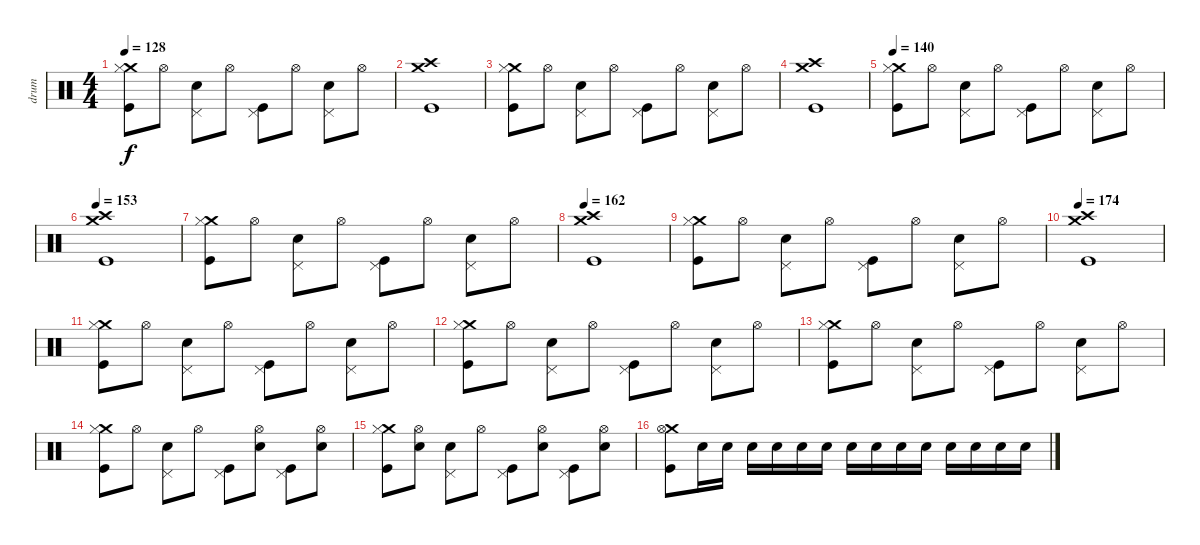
\track ("drum" "drum") {instrument percussion}
\staff {score}
\articulation defaults
\ts (4 4)
\tempo 128
\clef neutral
\ks c
("Crash medium (hit)" "Hi-Hat (closed)" "Kick (hit)").8{dy f} "Hi-Hat (open)".8 ("Pedal Hi-Hat (hit)" "Snare (hit) 2").8 "Hi-Hat (open)".8 ("Pedal Hi-Hat (hit)" "Kick (hit)").8 "Hi-Hat (open)".8 ("Pedal Hi-Hat (hit)" "Snare (hit) 2").8 "Hi-Hat (open)".8 |
("Crash medium (hit)" "Crash high (hit)" "Kick (hit)").1 |
("Crash medium (hit)" "Hi-Hat (closed)" "Kick (hit)").8 "Hi-Hat (open)".8 ("Pedal Hi-Hat (hit)" "Snare (hit) 2").8 "Hi-Hat (open)".8 ("Pedal Hi-Hat (hit)" "Kick (hit)").8 "Hi-Hat (open)".8 ("Pedal Hi-Hat (hit)" "Snare (hit) 2").8 "Hi-Hat (open)".8 |
("Crash medium (hit)" "Crash high (hit)" "Kick (hit)").1 |
\tempo 140
("Crash medium (hit)" "Hi-Hat (closed)" "Kick (hit)").8 "Hi-Hat (open)".8 ("Pedal Hi-Hat (hit)" "Snare (hit) 2").8 "Hi-Hat (open)".8 ("Pedal Hi-Hat (hit)" "Kick (hit)").8 "Hi-Hat (open)".8 ("Pedal Hi-Hat (hit)" "Snare (hit) 2").8 "Hi-Hat (open)".8 |
\tempo 153
("Crash medium (hit)" "Crash high (hit)" "Kick (hit)").1 |
("Crash medium (hit)" "Hi-Hat (closed)" "Kick (hit)").8 "Hi-Hat (open)".8 ("Pedal Hi-Hat (hit)" "Snare (hit) 2").8 "Hi-Hat (open)".8 ("Pedal Hi-Hat (hit)" "Kick (hit)").8 "Hi-Hat (open)".8 ("Pedal Hi-Hat (hit)" "Snare (hit) 2").8 "Hi-Hat (open)".8 |
\tempo 162
("Crash medium (hit)" "Crash high (hit)" "Kick (hit)").1 |
("Crash medium (hit)" "Hi-Hat (closed)" "Kick (hit)").8 "Hi-Hat (open)".8 ("Pedal Hi-Hat (hit)" "Snare (hit) 2").8 "Hi-Hat (open)".8 ("Pedal Hi-Hat (hit)" "Kick (hit)").8 "Hi-Hat (open)".8 ("Pedal Hi-Hat (hit)" "Snare (hit) 2").8 "Hi-Hat (open)".8 |
\tempo 174
("Crash medium (hit)" "Crash high (hit)" "Kick (hit)").1 |
("Crash medium (hit)" "Hi-Hat (closed)" "Kick (hit)").8 "Hi-Hat (open)".8 ("Pedal Hi-Hat (hit)" "Snare (hit) 2").8 "Hi-Hat (open)".8 ("Pedal Hi-Hat (hit)" "Kick (hit)").8 "Hi-Hat (open)".8 ("Pedal Hi-Hat (hit)" "Snare (hit) 2").8 "Hi-Hat (open)".8 |
("Crash medium (hit)" "Hi-Hat (closed)" "Kick (hit)").8 "Hi-Hat (open)".8 ("Pedal Hi-Hat (hit)" "Snare (hit) 2").8 "Hi-Hat (open)".8 ("Pedal Hi-Hat (hit)" "Kick (hit)").8 "Hi-Hat (open)".8 ("Pedal Hi-Hat (hit)" "Snare (hit) 2").8 "Hi-Hat (open)".8 |
("Crash medium (hit)" "Hi-Hat (closed)" "Kick (hit)").8 "Hi-Hat (open)".8 ("Pedal Hi-Hat (hit)" "Snare (hit) 2").8 "Hi-Hat (open)".8 ("Pedal Hi-Hat (hit)" "Kick (hit)").8 "Hi-Hat (open)".8 ("Pedal Hi-Hat (hit)" "Snare (hit) 2").8 "Hi-Hat (open)".8 |
("Crash medium (hit)" "Hi-Hat (closed)" "Kick (hit)").8 "Hi-Hat (open)".8 ("Pedal Hi-Hat (hit)" "Snare (hit) 2").8 "Hi-Hat (open)".8 ("Pedal Hi-Hat (hit)" "Kick (hit)").8 ("Hi-Hat (open)" "Snare (hit) 2").8 ("Pedal Hi-Hat (hit)" "Kick (hit)").8 ("Hi-Hat (open)" "Snare (hit) 2").8 |
("Crash medium (hit)" "Hi-Hat (closed)" "Kick (hit)").8 ("Hi-Hat (open)" "Snare (hit) 2").8 ("Pedal Hi-Hat (hit)" "Snare (hit) 2").8 "Hi-Hat (open)".8 ("Pedal Hi-Hat (hit)" "Kick (hit)").8 ("Hi-Hat (open)" "Snare (hit) 2").8 ("Pedal Hi-Hat (hit)" "Kick (hit)").8 ("Hi-Hat (open)" "Snare (hit) 2").8 |
("Crash medium (hit)" "Hi-Hat (open)" "Kick (hit)").8 "Snare (hit) 2".16 "Snare (hit) 2".16 "Snare (hit) 2".16 "Snare (hit) 2".16 "Snare (hit) 2".16 "Snare (hit) 2".16 "Snare (hit) 2".16 "Snare (hit) 2".16 "Snare (hit) 2".16 "Snare (hit) 2".16 "Snare (hit) 2".16 "Snare (hit) 2".16 "Snare (hit) 2".16 "Snare (hit) 2".16
